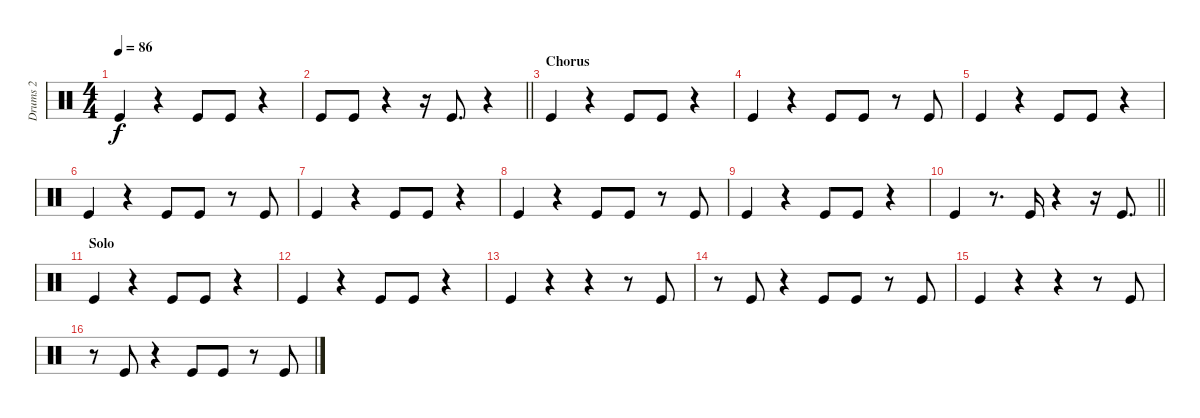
\track ("Drums 2" "Drums 2") {instrument percussion}
\staff {score}
\articulation defaults
\ts (4 4)
\tempo 86
\clef neutral
\ks c "Kick (hit)".4{dy f}
r.4 "Kick (hit)".8 "Kick (hit)".8 r.4 |
\barLineRight lightlight "Kick (hit)".8 "Kick (hit)".8
r.4 r.16 "Kick (hit)".8{d} r.4 |
\section ("" "Chorus")
"Kick (hit)".4 r.4 "Kick (hit)".8 "Kick (hit)".8 r.4 |
"Kick (hit)".4 r.4 "Kick (hit)".8 "Kick (hit)".8 r.8 "Kick (hit)".8 |
"Kick (hit)".4 r.4 "Kick (hit)".8 "Kick (hit)".8 r.4 |
"Kick (hit)".4 r.4 "Kick (hit)".8 "Kick (hit)".8 r.8 "Kick (hit)".8 |
"Kick (hit)".4 r.4 "Kick (hit)".8 "Kick (hit)".8 r.4 |
"Kick (hit)".4 r.4 "Kick (hit)".8 "Kick (hit)".8 r.8 "Kick (hit)".8 |
"Kick (hit)".4 r.4 "Kick (hit)".8 "Kick (hit)".8 r.4 |
\barLineRight lightlight "Kick (hit)".4
r.8{d} "Kick (hit)".16 r.4 r.16 "Kick (hit)".8{d} |
\section ("" "Solo")
"Kick (hit)".4 r.4 "Kick (hit)".8 "Kick (hit)".8 r.4 |
"Kick (hit)".4 r.4 "Kick (hit)".8 "Kick (hit)".8 r.4 |
"Kick (hit)".4 r.4 r.4 r.8 "Kick (hit)".8 |
r.8 "Kick (hit)".8 r.4 "Kick (hit)".8 "Kick (hit)".8 r.8 "Kick (hit)".8 |
"Kick (hit)".4 r.4 r.4 r.8 "Kick (hit)".8 |
r.8 "Kick (hit)".8 r.4 "Kick (hit)".8 "Kick (hit)".8 r.8 "Kick (hit)".8
